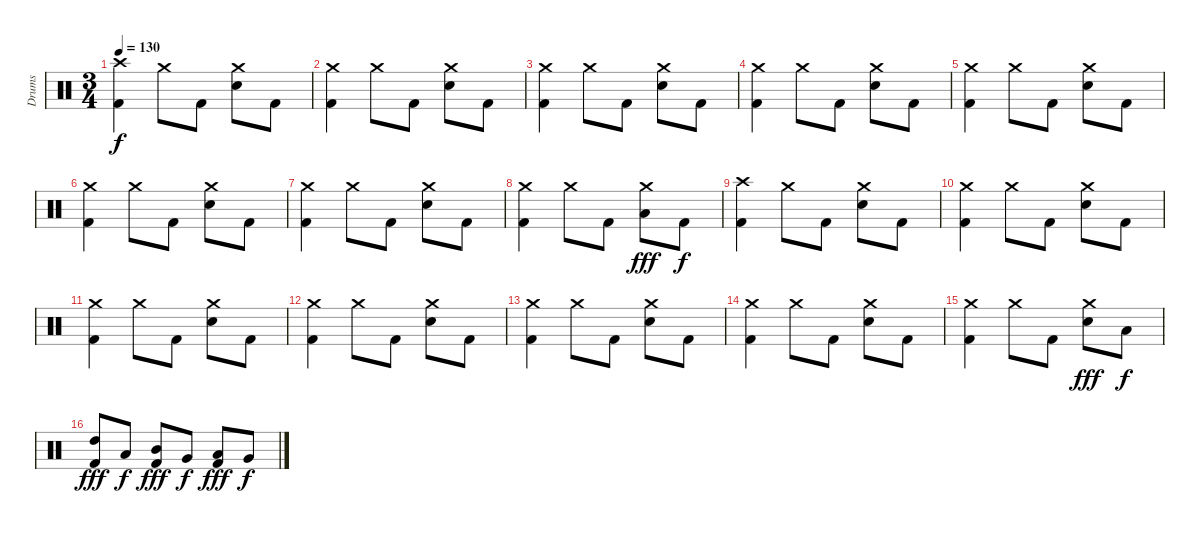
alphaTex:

\track ("Drums" "Drums") {instrument percussion}
\staff {score}
\articulation defaults
\ts (3 4)
\tempo 130
\clef neutral
\ks c
("Kick (hit) 2" "Crash high (hit)").4{dy f} "Crash medium (hit)".8 "Kick (hit) 2".8 ("Electric Snare (hit)" "Crash medium (hit)").8 "Kick (hit) 2".8 |
("Kick (hit) 2" "Crash medium (hit)").4 "Crash medium (hit)".8 "Kick (hit) 2".8 ("Electric Snare (hit)" "Crash medium (hit)").8 "Kick (hit) 2".8 |
("Kick (hit) 2" "Crash medium (hit)").4 "Crash medium (hit)".8 "Kick (hit) 2".8 ("Electric Snare (hit)" "Crash medium (hit)").8 "Kick (hit) 2".8 |
("Kick (hit) 2" "Crash medium (hit)").4 "Crash medium (hit)".8 "Kick (hit) 2".8 ("Electric Snare (hit)" "Crash medium (hit)").8 "Kick (hit) 2".8 |
("Kick (hit) 2" "Crash medium (hit)").4 "Crash medium (hit)".8 "Kick (hit) 2".8 ("Electric Snare (hit)" "Crash medium (hit)").8 "Kick (hit) 2".8 |
("Kick (hit) 2" "Crash medium (hit)").4 "Crash medium (hit)".8 "Kick (hit) 2".8 ("Electric Snare (hit)" "Crash medium (hit)").8 "Kick (hit) 2".8 |
("Kick (hit) 2" "Crash medium (hit)").4 "Crash medium (hit)".8 "Kick (hit) 2".8 ("Electric Snare (hit)" "Crash medium (hit)").8 "Kick (hit) 2".8 |
("Kick (hit) 2" "Crash medium (hit)").4 "Crash medium (hit)".8 "Kick (hit) 2".8 ("Low Tom (hit)" "Crash medium (hit)").8{dy fff} "Kick (hit) 2".8{dy f} |
("Kick (hit) 2" "Crash high (hit)").4 "Crash medium (hit)".8 "Kick (hit) 2".8 ("Electric Snare (hit)" "Crash medium (hit)").8 "Kick (hit) 2".8 |
("Kick (hit) 2" "Crash medium (hit)").4 "Crash medium (hit)".8 "Kick (hit) 2".8 ("Electric Snare (hit)" "Crash medium (hit)").8 "Kick (hit) 2".8 |
("Kick (hit) 2" "Crash medium (hit)").4 "Crash medium (hit)".8 "Kick (hit) 2".8 ("Electric Snare (hit)" "Crash medium (hit)").8 "Kick (hit) 2".8 |
("Kick (hit) 2" "Crash medium (hit)").4 "Crash medium (hit)".8 "Kick (hit) 2".8 ("Electric Snare (hit)" "Crash medium (hit)").8 "Kick (hit) 2".8 |
("Kick (hit) 2" "Crash medium (hit)").4 "Crash medium (hit)".8 "Kick (hit) 2".8 ("Electric Snare (hit)" "Crash medium (hit)").8 "Kick (hit) 2".8 |
("Kick (hit) 2" "Crash medium (hit)").4 "Crash medium (hit)".8 "Kick (hit) 2".8 ("Electric Snare (hit)" "Crash medium (hit)").8 "Kick (hit) 2".8 |
("Kick (hit) 2" "Crash medium (hit)").4 "Crash medium (hit)".8 "Kick (hit) 2".8 ("Electric Snare (hit)" "Crash medium (hit)").8{dy fff} "Low Tom (hit)".8{dy f} |
("Kick (hit) 2" "High Tom (hit)").8{dy fff} "Low Tom (hit)".8{dy f} ("Kick (hit) 2" "Mid Tom (hit)").8{dy fff} "Very Low Tom (hit)".8{dy f} ("Kick (hit) 2" "Low Tom (hit)").8{dy fff} "Very Low Tom (hit)".8{dy f}
